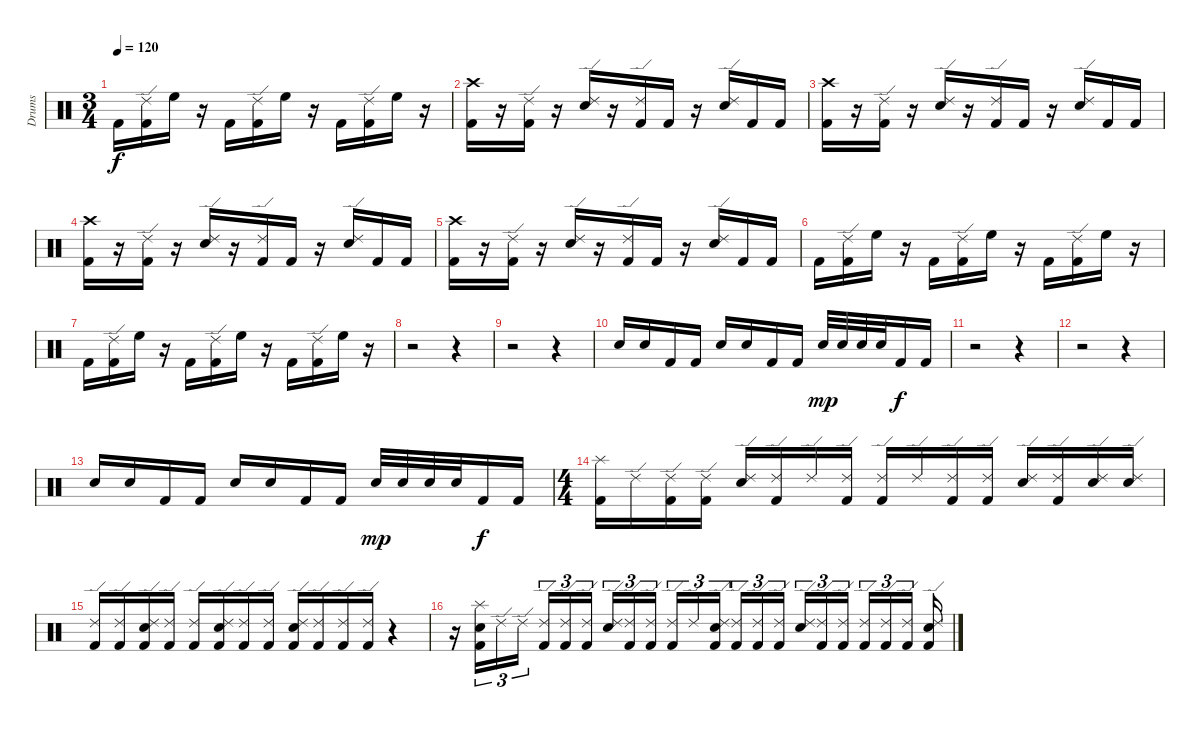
\track ("Drums" "Drums") {instrument percussion}
\staff {score}
\articulation defaults
\ts (3 4)
\tempo 120
\clef neutral
\ks c "Kick (hit) 2".16{dy f}
("Ride (edge) 2" "Kick (hit) 2").16 "High Floor Tom (hit)".16 r.16 "Kick (hit) 2".16 ("Ride (edge) 2" "Kick (hit) 2").16 "High Floor Tom (hit)".16 r.16 "Kick (hit) 2".16 ("Ride (edge) 2" "Kick (hit) 2").16 "High Floor Tom (hit)".16 r.16 |
("Crash high (hit)" "Kick (hit) 2").16 r.16 ("Ride (edge) 2" "Kick (hit) 2").16 r.16 ("Ride (edge) 2" "Electric Snare (hit)").16 r.16 ("Ride (edge) 2" "Kick (hit) 2").16 "Kick (hit) 2".16 r.16 ("Ride (edge) 2" "Electric Snare (hit)").16 "Kick (hit) 2".16 "Kick (hit) 2".16 |
("Crash high (hit)" "Kick (hit) 2").16 r.16 ("Ride (edge) 2" "Kick (hit) 2").16 r.16 ("Ride (edge) 2" "Electric Snare (hit)").16 r.16 ("Ride (edge) 2" "Kick (hit) 2").16 "Kick (hit) 2".16 r.16 ("Ride (edge) 2" "Electric Snare (hit)").16 "Kick (hit) 2".16 "Kick (hit) 2".16 |
("Crash high (hit)" "Kick (hit) 2").16 r.16 ("Ride (edge) 2" "Kick (hit) 2").16 r.16 ("Ride (edge) 2" "Electric Snare (hit)").16 r.16 ("Ride (edge) 2" "Kick (hit) 2").16 "Kick (hit) 2".16 r.16 ("Ride (edge) 2" "Electric Snare (hit)").16 "Kick (hit) 2".16 "Kick (hit) 2".16 |
("Crash high (hit)" "Kick (hit) 2").16 r.16 ("Ride (edge) 2" "Kick (hit) 2").16 r.16 ("Ride (edge) 2" "Electric Snare (hit)").16 r.16 ("Ride (edge) 2" "Kick (hit) 2").16 "Kick (hit) 2".16 r.16 ("Ride (edge) 2" "Electric Snare (hit)").16 "Kick (hit) 2".16 "Kick (hit) 2".16 |
"Kick (hit) 2".16 ("Ride (edge) 2" "Kick (hit) 2").16 "High Floor Tom (hit)".16 r.16 "Kick (hit) 2".16 ("Ride (edge) 2" "Kick (hit) 2").16 "High Floor Tom (hit)".16 r.16 "Kick (hit) 2".16 ("Ride (edge) 2" "Kick (hit) 2").16 "High Floor Tom (hit)".16 r.16 |
"Kick (hit) 2".16 ("Ride (edge) 2" "Kick (hit) 2").16 "High Floor Tom (hit)".16 r.16 "Kick (hit) 2".16 ("Ride (edge) 2" "Kick (hit) 2").16 "High Floor Tom (hit)".16 r.16 "Kick (hit) 2".16 ("Ride (edge) 2" "Kick (hit) 2").16 "High Floor Tom (hit)".16 r.16 |
r.2 r.4 |
r.2 r.4 |
"Electric Snare (hit)".16 "Electric Snare (hit)".16 "Kick (hit) 2".16 "Kick (hit) 2".16 "Electric Snare (hit)".16 "Electric Snare (hit)".16 "Kick (hit) 2".16 "Kick (hit) 2".16 "Electric Snare (hit)".32{dy mp} "Electric Snare (hit)".32 "Electric Snare (hit)".32 "Electric Snare (hit)".32 "Kick (hit) 2".16{dy f} "Kick (hit) 2".16 |
r.2 r.4 |
r.2 r.4 |
"Electric Snare (hit)".16 "Electric Snare (hit)".16 "Kick (hit) 2".16 "Kick (hit) 2".16 "Electric Snare (hit)".16 "Electric Snare (hit)".16 "Kick (hit) 2".16 "Kick (hit) 2".16 "Electric Snare (hit)".32{dy mp} "Electric Snare (hit)".32 "Electric Snare (hit)".32 "Electric Snare (hit)".32 "Kick (hit) 2".16{dy f} "Kick (hit) 2".16 |
\ts (4 4)
("Splash (hit)" "Kick (hit) 2").16 "Ride (edge) 2".16 ("Ride (edge) 2" "Kick (hit) 2").16 ("Ride (edge) 2" "Kick (hit) 2").16 ("Ride (edge) 2" "Electric Snare (hit)").16 ("Ride (edge) 2" "Kick (hit) 2").16 "Ride (edge) 2".16 ("Ride (edge) 2" "Kick (hit) 2").16 ("Ride (edge) 2" "Kick (hit) 2").16 "Ride (edge) 2".16 ("Ride (edge) 2" "Kick (hit) 2").16 ("Ride (edge) 2" "Kick (hit) 2").16 ("Ride (edge) 2" "Electric Snare (hit)").16 ("Ride (edge) 2" "Kick (hit) 2").16 ("Ride (edge) 2" "Electric Snare (hit)").16 ("Ride (edge) 2" "Electric Snare (hit)").16 |
("Ride (edge) 2" "Kick (hit) 2").16 ("Ride (edge) 2" "Kick (hit) 2").16 ("Ride (edge) 2" "Electric Snare (hit)" "Kick (hit) 2").16 ("Ride (edge) 2" "Kick (hit) 2").16 ("Ride (edge) 2" "Kick (hit) 2").16 ("Ride (edge) 2" "Electric Snare (hit)" "Kick (hit) 2").16 ("Ride (edge) 2" "Kick (hit) 2").16 ("Ride (edge) 2" "Kick (hit) 2").16 ("Ride (edge) 2" "Electric Snare (hit)" "Kick (hit) 2").16 ("Ride (edge) 2" "Kick (hit) 2").16 ("Ride (edge) 2" "Kick (hit) 2").16 ("Ride (edge) 2" "Kick (hit) 2").16 r.4 |
r.16 ("Splash (hit)" "Electric Snare (hit)" "Kick (hit) 2").16{tu (3 2)} "Ride (edge) 2".16{tu (3 2)} "Ride (edge) 2".16{tu (3 2)} ("Ride (edge) 2" "Kick (hit) 2").16{tu (3 2)} ("Ride (edge) 2" "Kick (hit) 2").16{tu (3 2)} ("Ride (edge) 2" "Kick (hit) 2").16{tu (3 2)} ("Ride (edge) 2" "Electric Snare (hit)").16{tu (3 2)} ("Ride (edge) 2" "Kick (hit) 2").16{tu (3 2)} ("Ride (edge) 2" "Kick (hit) 2").16{tu (3 2)} ("Ride (edge) 2" "Kick (hit) 2").16{tu (3 2)} "Ride (edge) 2".16{tu (3 2)} ("Ride (edge) 2" "Electric Snare (hit)" "Kick (hit) 2").16{tu (3 2)} ("Ride (edge) 2" "Kick (hit) 2").16{tu (3 2)} ("Ride (edge) 2" "Kick (hit) 2").16{tu (3 2)} ("Ride (edge) 2" "Kick (hit) 2").16{tu (3 2)} ("Ride (edge) 2" "Electric Snare (hit)").16{tu (3 2)} ("Ride (edge) 2" "Kick (hit) 2").16{tu (3 2)} ("Ride (edge) 2" "Kick (hit) 2").16{tu (3 2)} ("Ride (edge) 2" "Kick (hit) 2").16{tu (3 2)} ("Ride (edge) 2" "Kick (hit) 2").16{tu (3 2)} ("Ride (edge) 2" "Kick (hit) 2").16{tu (3 2)} ("Ride (edge) 2" "Electric Snare (hit)" "Kick (hit) 2").16
